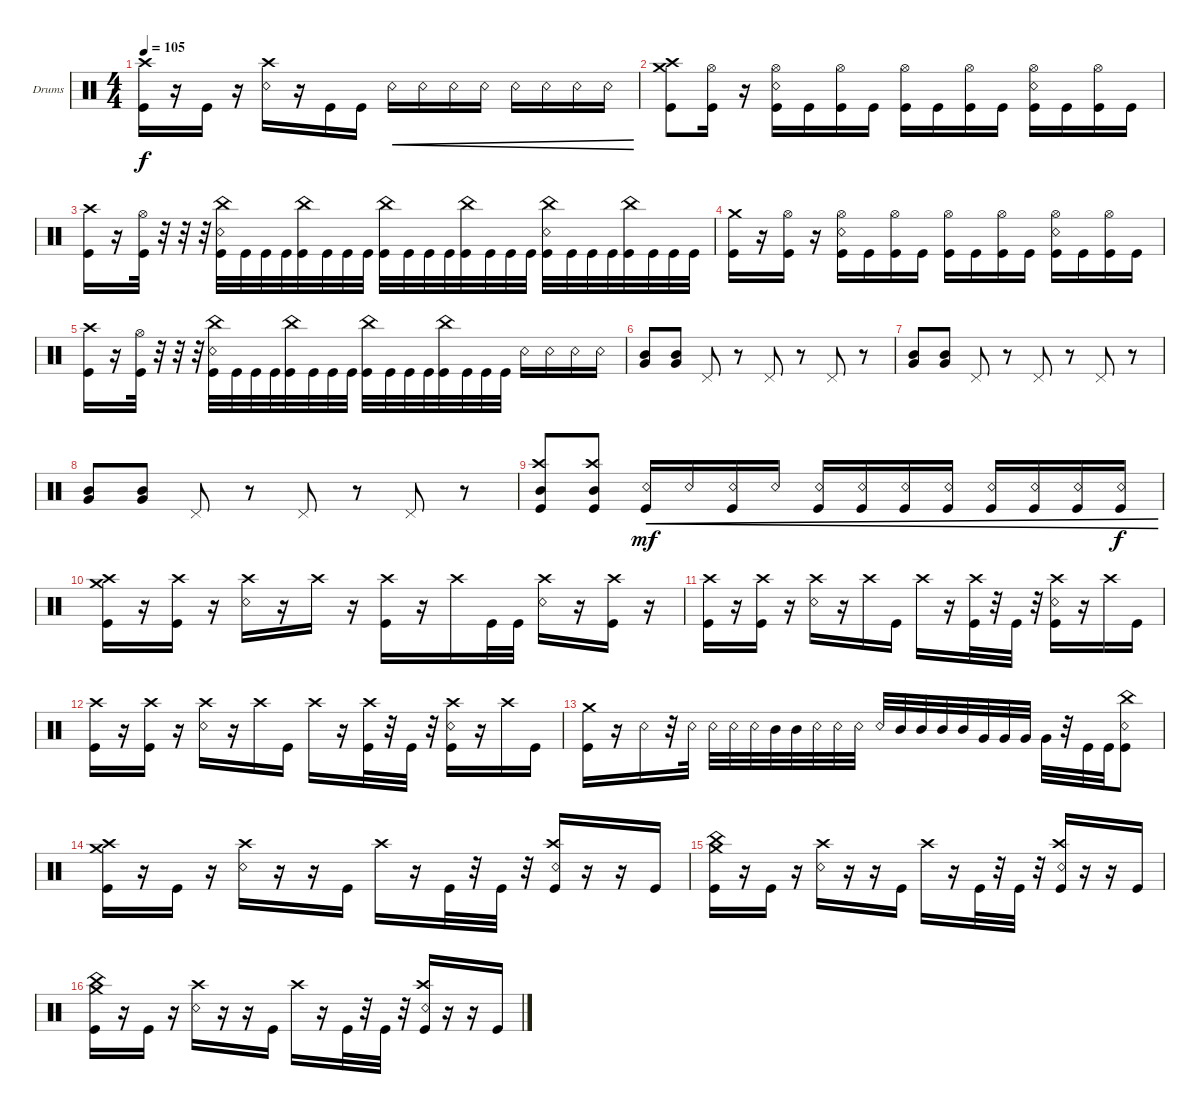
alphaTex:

\bracketExtendMode groupsimilarinstruments
\firstSystemTrackNameOrientation horizontal
\otherSystemsTrackNameOrientation horizontal
\track ("[STEWART]" "Drums") {instrument percussion}
\staff {score}
\articulation defaults
\ts (4 4)
\tempo 105
\clef neutral
\ks c
("Kick (hit)" "Crash high (hit)").16{dy f} r.16 "Kick (hit)".16 r.16 ("Snare (rim shot)" "Crash high (hit)").16 r.16 "Kick (hit)".16 "Kick (hit)".16 "Snare (rim shot)".16{cre} "Snare (rim shot)".16{cre} "Snare (rim shot)".16{cre} "Snare (rim shot)".16{cre} "Snare (rim shot)".16{cre} "Snare (rim shot)".16{cre} "Snare (rim shot)".16{cre} "Snare (rim shot)".16{cre} |
("Kick (hit)" "Crash high (hit)" "Crash medium (hit)").8 ("Kick (hit)" "Hi-Hat (open)").16 r.16 ("Kick (hit)" "Snare (rim shot)" "Hi-Hat (open)").16 "Kick (hit)".16 ("Kick (hit)" "Hi-Hat (open)").16 "Kick (hit)".16 ("Kick (hit)" "Hi-Hat (open)").16 "Kick (hit)".16 ("Kick (hit)" "Hi-Hat (open)").16 "Kick (hit)".16 ("Kick (hit)" "Snare (rim shot)" "Hi-Hat (open)").16 "Kick (hit)".16 ("Kick (hit)" "Hi-Hat (open)").16 "Kick (hit)".16 |
("Kick (hit)" "Crash high (hit)").16 r.16 ("Kick (hit)" "Hi-Hat (open)").32 r.32 r.32 r.32 ("Kick (hit)" "Snare (rim shot)" "China (hit)").32 "Kick (hit)".32 "Kick (hit)".32 "Kick (hit)".32 ("Kick (hit)" "China (hit)").32 "Kick (hit)".32 "Kick (hit)".32 "Kick (hit)".32 ("Kick (hit)" "China (hit)").32 "Kick (hit)".32 "Kick (hit)".32 "Kick (hit)".32 ("Kick (hit)" "China (hit)").32 "Kick (hit)".32 "Kick (hit)".32 "Kick (hit)".32 ("Kick (hit)" "Snare (rim shot)" "China (hit)").32 "Kick (hit)".32 "Kick (hit)".32 "Kick (hit)".32 ("Kick (hit)" "China (hit)").32 "Kick (hit)".32 "Kick (hit)".32 "Kick (hit)".32 |
("Crash medium (hit)" "Kick (hit)").16 r.16 ("Kick (hit)" "Hi-Hat (open)").16 r.16 ("Kick (hit)" "Snare (rim shot)" "Hi-Hat (open)").16 "Kick (hit)".16 ("Kick (hit)" "Hi-Hat (open)").16 "Kick (hit)".16 ("Kick (hit)" "Hi-Hat (open)").16 "Kick (hit)".16 ("Kick (hit)" "Hi-Hat (open)").16 "Kick (hit)".16 ("Kick (hit)" "Snare (rim shot)" "Hi-Hat (open)").16 "Kick (hit)".16 ("Kick (hit)" "Hi-Hat (open)").16 "Kick (hit)".16 |
("Kick (hit)" "Crash high (hit)").16 r.16 ("Kick (hit)" "Hi-Hat (open)").32 r.32 r.32 r.32 ("Kick (hit)" "Snare (rim shot)" "China (hit)").32 "Kick (hit)".32 "Kick (hit)".32 "Kick (hit)".32 ("Kick (hit)" "China (hit)").32 "Kick (hit)".32 "Kick (hit)".32 "Kick (hit)".32 ("Kick (hit)" "China (hit)").32 "Kick (hit)".32 "Kick (hit)".32 "Kick (hit)".32 ("Kick (hit)" "China (hit)").32 "Kick (hit)".32 "Kick (hit)".32 "Kick (hit)".32 "Snare (rim shot)".16 "Snare (rim shot)".16 "Snare (rim shot)".16 "Snare (rim shot)".16 |
("Very Low Tom (hit)" "Mid Tom (hit)").8 ("Mid Tom (hit)" "Very Low Tom (hit)").8 "Pedal Hi-Hat (hit)".8 r.8 "Pedal Hi-Hat (hit)".8 r.8 "Pedal Hi-Hat (hit)".8 r.8 |
("Very Low Tom (hit)" "Mid Tom (hit)").8 ("Very Low Tom (hit)" "Mid Tom (hit)").8 "Pedal Hi-Hat (hit)".8 r.8 "Pedal Hi-Hat (hit)".8 r.8 "Pedal Hi-Hat (hit)".8 r.8 |
("Very Low Tom (hit)" "Mid Tom (hit)").8 ("Very Low Tom (hit)" "Mid Tom (hit)").8 "Pedal Hi-Hat (hit)".8 r.8 "Pedal Hi-Hat (hit)".8 r.8 "Pedal Hi-Hat (hit)".8 r.8 |
("Mid Tom (hit)" "Kick (hit)" "Crash high (hit)").8 ("Mid Tom (hit)" "Kick (hit)" "Crash high (hit)").8 ("Snare (rim shot)" "Kick (hit)").16{cre dy mf} "Snare (rim shot)".16{cre} ("Snare (rim shot)" "Kick (hit)").16{cre} "Snare (rim shot)".16{cre} ("Snare (rim shot)" "Kick (hit)").16{cre} ("Snare (rim shot)" "Kick (hit)").16{cre} ("Snare (rim shot)" "Kick (hit)").16{cre} ("Snare (rim shot)" "Kick (hit)").16{cre} ("Snare (rim shot)" "Kick (hit)").16{cre} ("Snare (rim shot)" "Kick (hit)").16{cre} ("Snare (rim shot)" "Kick (hit)").16{cre} ("Snare (rim shot)" "Kick (hit)").16{cre dy f} |
("Crash medium (hit)" "Kick (hit)" "Crash high (hit)").16 r.16 ("Kick (hit)" "Crash high (hit)").16 r.16 ("Snare (rim shot)" "Crash high (hit)").16 r.16 "Crash high (hit)".16 r.16 ("Kick (hit)" "Crash high (hit)").16 r.16 "Crash high (hit)".16 "Kick (hit)".32 "Kick (hit)".32 ("Snare (rim shot)" "Crash high (hit)").16 r.16 ("Kick (hit)" "Crash high (hit)").16 r.16 |
("Kick (hit)" "Crash high (hit)").16 r.16 ("Kick (hit)" "Crash high (hit)").16 r.16 ("Snare (rim shot)" "Crash high (hit)").16 r.16 "Crash high (hit)".16 "Kick (hit)".16 "Crash high (hit)".16 r.16 ("Kick (hit)" "Crash high (hit)").32 r.32 "Kick (hit)".32 r.32 ("Snare (rim shot)" "Kick (hit)" "Crash high (hit)").16 r.16 "Crash high (hit)".16 "Kick (hit)".16 |
("Kick (hit)" "Crash high (hit)").16 r.16 ("Kick (hit)" "Crash high (hit)").16 r.16 ("Snare (rim shot)" "Crash high (hit)").16 r.16 "Crash high (hit)".16 "Kick (hit)".16 "Crash high (hit)".16 r.16 ("Kick (hit)" "Crash high (hit)").32 r.32 "Kick (hit)".32 r.32 ("Snare (rim shot)" "Kick (hit)" "Crash high (hit)").16 r.16 "Crash high (hit)".16 "Kick (hit)".16 |
("Crash medium (hit)" "Kick (hit)").16 r.16 "Snare (rim shot)".16 r.32 "Snare (rim shot)".32 "Snare (rim shot)".32 "Snare (rim shot)".32 "Snare (rim shot)".32 "Mid Tom (hit)".32 "Mid Tom (hit)".32 "Snare (rim shot)".32 "Snare (rim shot)".32 "Snare (rim shot)".32 "Snare (rim shot)".32 "Mid Tom (hit)".32 "Mid Tom (hit)".32 "Mid Tom (hit)".32 "Mid Tom (hit)".32 "Very Low Tom (hit)".32 "Very Low Tom (hit)".32 "Very Low Tom (hit)".32 "Very Low Tom (hit)".32 r.32 "Kick (hit)".32 "Kick (hit)".32 ("Kick (hit)" "China (hit)" "Snare (rim shot)").8 |
("Crash medium (hit)" "Kick (hit)" "Crash high (hit)").16 r.16 "Kick (hit)".16 r.16 ("Snare (rim shot)" "Crash high (hit)").16 r.16 r.16 "Kick (hit)".16 "Crash high (hit)".16 r.16 "Kick (hit)".32 r.32 "Kick (hit)".32 r.32 ("Snare (rim shot)" "Kick (hit)" "Crash high (hit)").16 r.16 r.16 "Kick (hit)".16 |
("Crash medium (hit)" "Kick (hit)" "China (hit)").16 r.16 "Kick (hit)".16 r.16 ("Snare (rim shot)" "Crash high (hit)").16 r.16 r.16 "Kick (hit)".16 "Crash high (hit)".16 r.16 "Kick (hit)".32 r.32 "Kick (hit)".32 r.32 ("Snare (rim shot)" "Kick (hit)" "Crash high (hit)").16 r.16 r.16 "Kick (hit)".16 |
("Crash medium (hit)" "Kick (hit)" "China (hit)").16 r.16 "Kick (hit)".16 r.16 ("Snare (rim shot)" "Crash high (hit)").16 r.16 r.16 "Kick (hit)".16 "Crash high (hit)".16 r.16 "Kick (hit)".32 r.32 "Kick (hit)".32 r.32 ("Snare (rim shot)" "Kick (hit)" "Crash high (hit)").16 r.16 r.16 "Kick (hit)".16
